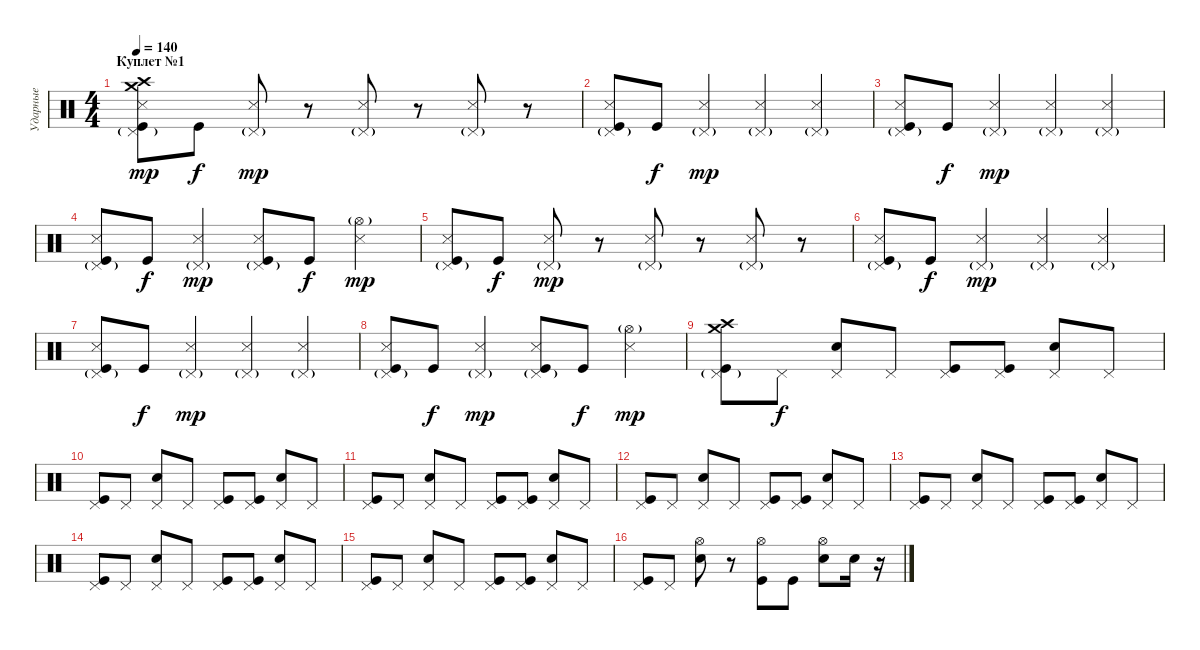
\track ("Ударные" "Ударные") {instrument percussion}
\staff {score}
\articulation defaults
\ts (4 4)
\section ("" "Куплет №1")
\tempo 140
\clef neutral
\ks c
("Crash high (hit)" "Crash medium (hit)" "Pedal Hi-Hat (hit)"{g} "Snare (side stick) 3" "Kick (hit)").8{dy mp} "Kick (hit)".8{dy f} ("Pedal Hi-Hat (hit)"{g} "Snare (side stick) 3").8{dy mp} r.8 ("Pedal Hi-Hat (hit)"{g} "Snare (side stick) 3").8 r.8 ("Pedal Hi-Hat (hit)"{g} "Snare (side stick) 3").8 r.8 |
("Pedal Hi-Hat (hit)"{g} "Kick (hit)" "Snare (side stick) 3").8 "Kick (hit)".8{dy f} ("Pedal Hi-Hat (hit)"{g} "Snare (side stick) 3").4{dy mp} ("Pedal Hi-Hat (hit)"{g} "Snare (side stick) 3").4 ("Pedal Hi-Hat (hit)"{g} "Snare (side stick) 3").4 |
("Pedal Hi-Hat (hit)"{g} "Snare (side stick) 3" "Kick (hit)").8 "Kick (hit)".8{dy f} ("Pedal Hi-Hat (hit)"{g} "Snare (side stick) 3").4{dy mp} ("Pedal Hi-Hat (hit)"{g} "Snare (side stick) 3").4 ("Pedal Hi-Hat (hit)"{g} "Snare (side stick) 3").4 |
("Pedal Hi-Hat (hit)"{g} "Kick (hit)" "Snare (side stick) 3").8 "Kick (hit)".8{dy f} ("Pedal Hi-Hat (hit)"{g} "Snare (side stick) 3").4{dy mp} ("Pedal Hi-Hat (hit)"{g} "Kick (hit)" "Snare (side stick) 3").8 "Kick (hit)".8{dy f} ("Hi-Hat (open)"{g} "Snare (side stick) 3").4{dy mp} |
("Pedal Hi-Hat (hit)"{g} "Snare (side stick) 3" "Kick (hit)").8 "Kick (hit)".8{dy f} ("Pedal Hi-Hat (hit)"{g} "Snare (side stick) 3").8{dy mp} r.8 ("Pedal Hi-Hat (hit)"{g} "Snare (side stick) 3").8 r.8 ("Pedal Hi-Hat (hit)"{g} "Snare (side stick) 3").8 r.8 |
("Pedal Hi-Hat (hit)"{g} "Kick (hit)" "Snare (side stick) 3").8 "Kick (hit)".8{dy f} ("Pedal Hi-Hat (hit)"{g} "Snare (side stick) 3").4{dy mp} ("Pedal Hi-Hat (hit)"{g} "Snare (side stick) 3").4 ("Pedal Hi-Hat (hit)"{g} "Snare (side stick) 3").4 |
("Pedal Hi-Hat (hit)"{g} "Snare (side stick) 3" "Kick (hit)").8 "Kick (hit)".8{dy f} ("Pedal Hi-Hat (hit)"{g} "Snare (side stick) 3").4{dy mp} ("Pedal Hi-Hat (hit)"{g} "Snare (side stick) 3").4 ("Pedal Hi-Hat (hit)"{g} "Snare (side stick) 3").4 |
("Pedal Hi-Hat (hit)"{g} "Kick (hit)" "Snare (side stick) 3").8 "Kick (hit)".8{dy f} ("Pedal Hi-Hat (hit)"{g} "Snare (side stick) 3").4{dy mp} ("Pedal Hi-Hat (hit)"{g} "Kick (hit)" "Snare (side stick) 3").8 "Kick (hit)".8{dy f} ("Hi-Hat (open)"{g} "Snare (side stick) 3").4{dy mp} |
("Crash high (hit)" "Crash medium (hit)" "Pedal Hi-Hat (hit)"{g} "Kick (hit)").8 "Pedal Hi-Hat (hit)".8{dy f} ("Pedal Hi-Hat (hit)" "Electric Snare (hit)").8 "Pedal Hi-Hat (hit)".8 ("Pedal Hi-Hat (hit)" "Kick (hit)").8 ("Pedal Hi-Hat (hit)" "Kick (hit)").8 ("Pedal Hi-Hat (hit)" "Electric Snare (hit)").8 "Pedal Hi-Hat (hit)".8 |
("Pedal Hi-Hat (hit)" "Kick (hit)").8 "Pedal Hi-Hat (hit)".8 ("Pedal Hi-Hat (hit)" "Electric Snare (hit)").8 "Pedal Hi-Hat (hit)".8 ("Pedal Hi-Hat (hit)" "Kick (hit)").8 ("Pedal Hi-Hat (hit)" "Kick (hit)").8 ("Pedal Hi-Hat (hit)" "Electric Snare (hit)").8 "Pedal Hi-Hat (hit)".8 |
("Pedal Hi-Hat (hit)" "Kick (hit)").8 "Pedal Hi-Hat (hit)".8 ("Pedal Hi-Hat (hit)" "Electric Snare (hit)").8 "Pedal Hi-Hat (hit)".8 ("Pedal Hi-Hat (hit)" "Kick (hit)").8 ("Pedal Hi-Hat (hit)" "Kick (hit)").8 ("Pedal Hi-Hat (hit)" "Electric Snare (hit)").8 "Pedal Hi-Hat (hit)".8 |
("Pedal Hi-Hat (hit)" "Kick (hit)").8 "Pedal Hi-Hat (hit)".8 ("Pedal Hi-Hat (hit)" "Electric Snare (hit)").8 "Pedal Hi-Hat (hit)".8 ("Pedal Hi-Hat (hit)" "Kick (hit)").8 ("Pedal Hi-Hat (hit)" "Kick (hit)").8 ("Pedal Hi-Hat (hit)" "Electric Snare (hit)").8 "Pedal Hi-Hat (hit)".8 |
("Pedal Hi-Hat (hit)" "Kick (hit)").8 "Pedal Hi-Hat (hit)".8 ("Pedal Hi-Hat (hit)" "Electric Snare (hit)").8 "Pedal Hi-Hat (hit)".8 ("Pedal Hi-Hat (hit)" "Kick (hit)").8 ("Pedal Hi-Hat (hit)" "Kick (hit)").8 ("Pedal Hi-Hat (hit)" "Electric Snare (hit)").8 "Pedal Hi-Hat (hit)".8 |
("Pedal Hi-Hat (hit)" "Kick (hit)").8 "Pedal Hi-Hat (hit)".8 ("Pedal Hi-Hat (hit)" "Electric Snare (hit)").8 "Pedal Hi-Hat (hit)".8 ("Pedal Hi-Hat (hit)" "Kick (hit)").8 ("Pedal Hi-Hat (hit)" "Kick (hit)").8 ("Pedal Hi-Hat (hit)" "Electric Snare (hit)").8 "Pedal Hi-Hat (hit)".8 |
("Pedal Hi-Hat (hit)" "Kick (hit)").8 "Pedal Hi-Hat (hit)".8 ("Pedal Hi-Hat (hit)" "Electric Snare (hit)").8 "Pedal Hi-Hat (hit)".8 ("Pedal Hi-Hat (hit)" "Kick (hit)").8 ("Pedal Hi-Hat (hit)" "Kick (hit)").8 ("Pedal Hi-Hat (hit)" "Electric Snare (hit)").8 "Pedal Hi-Hat (hit)".8 |
("Pedal Hi-Hat (hit)" "Kick (hit)").8 "Pedal Hi-Hat (hit)".8 ("Hi-Hat (open)" "Electric Snare (hit)").8 r.8 ("Hi-Hat (open)" "Kick (hit)").8 "Kick (hit)".8 ("Hi-Hat (open)" "Electric Snare (hit)").8 "Electric Snare (hit)".16 r.16
